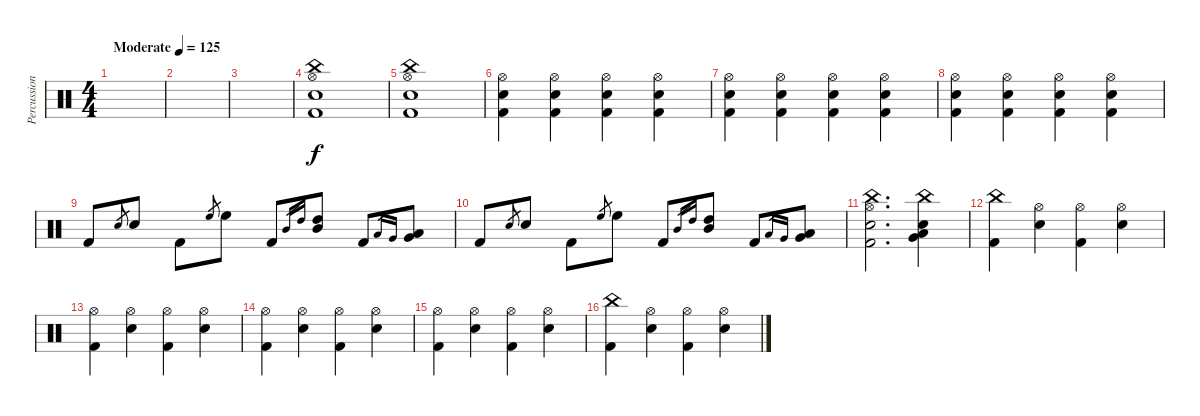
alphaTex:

\track ("Percussion" "Percussion") {instrument percussion}
\staff {score}
\articulation defaults
\ts (4 4)
\tempo (125 "Moderate")
\clef neutral
\ks c
|
|
|
("China (hit)" "Hi-Hat (open)" "Snare (hit) 2" "Kick (hit) 2").1 |
("China (hit)" "Hi-Hat (open)" "Snare (hit) 2" "Kick (hit) 2").1 |
("Hi-Hat (open)" "Snare (hit) 2" "Kick (hit) 2").4 ("Hi-Hat (open)" "Snare (hit) 2" "Kick (hit) 2").4 ("Hi-Hat (open)" "Snare (hit) 2" "Kick (hit) 2").4 ("Hi-Hat (open)" "Snare (hit) 2" "Kick (hit) 2").4 |
("Hi-Hat (open)" "Snare (hit) 2" "Kick (hit) 2").4 ("Hi-Hat (open)" "Snare (hit) 2" "Kick (hit) 2").4 ("Hi-Hat (open)" "Snare (hit) 2" "Kick (hit) 2").4 ("Hi-Hat (open)" "Snare (hit) 2" "Kick (hit) 2").4 |
("Hi-Hat (open)" "Snare (hit) 2" "Kick (hit) 2").4 ("Hi-Hat (open)" "Snare (hit) 2" "Kick (hit) 2").4 ("Hi-Hat (open)" "Snare (hit) 2" "Kick (hit) 2").4 ("Hi-Hat (open)" "Snare (hit) 2" "Kick (hit) 2").4 |
"Kick (hit) 2".8 "Snare (hit) 2".8{gr} "Snare (hit) 2".8 "Kick (hit) 2".8 "High Floor Tom (hit)".8{gr} "High Floor Tom (hit)".8 "Kick (hit) 2".8 "Mid Tom (hit)".16{gr} "High Tom (hit)".16{gr} ("Mid Tom (hit)" "High Tom (hit)").8 "Kick (hit) 2".8 "Low Floor Tom (hit)".16{gr} "Very Low Tom (hit)".16{gr} ("Low Floor Tom (hit)" "Very Low Tom (hit)").8 |
"Kick (hit) 2".8 "Snare (hit) 2".8{gr} "Snare (hit) 2".8 "Kick (hit) 2".8 "High Floor Tom (hit)".8{gr} "High Floor Tom (hit)".8 "Kick (hit) 2".8 "Mid Tom (hit)".16{gr} "High Tom (hit)".16{gr} ("Mid Tom (hit)" "High Tom (hit)").8 "Kick (hit) 2".8 "Low Floor Tom (hit)".16{gr} "Very Low Tom (hit)".16{gr} ("Low Floor Tom (hit)" "Very Low Tom (hit)").8 |
("China (hit)" "Hi-Hat (open)" "Snare (hit) 2" "Kick (hit) 2").2{d} ("China (hit)" "Low Floor Tom (hit)" "Very Low Tom (hit)" "Snare (hit) 2").4 |
("China (hit)" "Kick (hit) 2").4 ("Hi-Hat (open)" "Snare (hit) 2").4 ("Hi-Hat (open)" "Kick (hit) 2").4 ("Hi-Hat (open)" "Snare (hit) 2").4 |
("Hi-Hat (open)" "Kick (hit) 2").4 ("Hi-Hat (open)" "Snare (hit) 2").4 ("Hi-Hat (open)" "Kick (hit) 2").4 ("Hi-Hat (open)" "Snare (hit) 2").4 |
("Hi-Hat (open)" "Kick (hit) 2").4 ("Hi-Hat (open)" "Snare (hit) 2").4 ("Hi-Hat (open)" "Kick (hit) 2").4 ("Hi-Hat (open)" "Snare (hit) 2").4 |
("Hi-Hat (open)" "Kick (hit) 2").4 ("Hi-Hat (open)" "Snare (hit) 2").4 ("Hi-Hat (open)" "Kick (hit) 2").4 ("Hi-Hat (open)" "Snare (hit) 2").4 |
("China (hit)" "Kick (hit) 2").4 ("Hi-Hat (open)" "Snare (hit) 2").4 ("Hi-Hat (open)" "Kick (hit) 2").4 ("Hi-Hat (open)" "Snare (hit) 2").4
